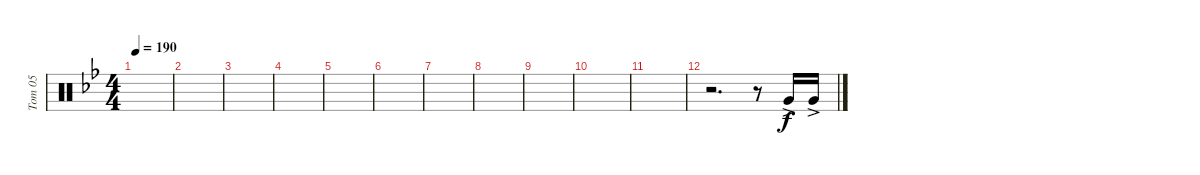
\track ("Tom 05" "Tom 05") {instrument percussion}
\staff {score}
\articulation defaults
\ts (4 4)
\tempo 190
\clef neutral
\ks bb
|
|
|
|
|
|
|
|
|
|
|
r.2{d} r.8 "Very Low Tom (hit)"{ac}.16 "Very Low Tom (hit)"{ac}.16
